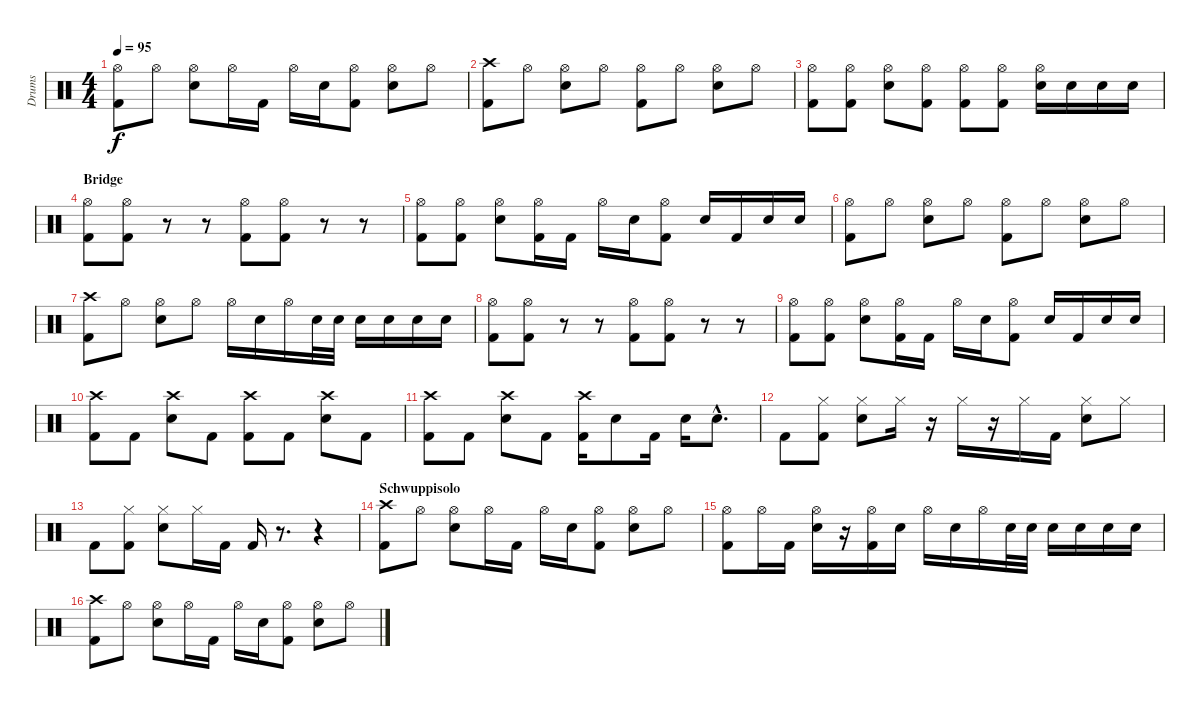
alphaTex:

\track ("Drums" "Drums") {instrument percussion}
\staff {score}
\articulation defaults
\ts (4 4)
\tempo 95
\clef neutral
\ks c
("Hi-Hat (open)" "Kick (hit) 2").8{dy f} "Hi-Hat (open)".8 ("Hi-Hat (open)" "Snare (hit) 2").8 "Hi-Hat (open)".16 "Kick (hit) 2".16 "Hi-Hat (open)".16 "Snare (hit) 2".16 ("Hi-Hat (open)" "Kick (hit) 2").8 ("Hi-Hat (open)" "Snare (hit) 2").8 "Hi-Hat (open)".8 |
("Crash high (hit)" "Kick (hit) 2").8 "Hi-Hat (open)".8 ("Hi-Hat (open)" "Snare (hit) 2").8 "Hi-Hat (open)".8 ("Hi-Hat (open)" "Kick (hit) 2").8 "Hi-Hat (open)".8 ("Hi-Hat (open)" "Snare (hit) 2").8 "Hi-Hat (open)".8 |
("Hi-Hat (open)" "Kick (hit) 2").8 ("Hi-Hat (open)" "Kick (hit) 2").8 ("Hi-Hat (open)" "Snare (hit) 2").8 ("Hi-Hat (open)" "Kick (hit) 2").8 ("Hi-Hat (open)" "Kick (hit) 2").8 ("Hi-Hat (open)" "Kick (hit) 2").8 ("Hi-Hat (open)" "Snare (hit) 2").16 "Snare (hit) 2".16 "Snare (hit) 2".16 "Snare (hit) 2".16 |
\section ("" "Bridge")
("Hi-Hat (open)" "Kick (hit) 2").8 ("Hi-Hat (open)" "Kick (hit) 2").8 r.8 r.8 ("Hi-Hat (open)" "Kick (hit) 2").8 ("Hi-Hat (open)" "Kick (hit) 2").8 r.8 r.8 |
("Hi-Hat (open)" "Kick (hit) 2").8 ("Hi-Hat (open)" "Kick (hit) 2").8 ("Hi-Hat (open)" "Snare (hit) 2").8 ("Hi-Hat (open)" "Kick (hit) 2").16 "Kick (hit) 2".16 "Hi-Hat (open)".16 "Snare (hit) 2".16 ("Hi-Hat (open)" "Kick (hit) 2").8 "Snare (hit) 2".16 "Kick (hit) 2".16 "Snare (hit) 2".16 "Snare (hit) 2".16 |
("Hi-Hat (open)" "Kick (hit) 2").8 "Hi-Hat (open)".8 ("Hi-Hat (open)" "Snare (hit) 2").8 "Hi-Hat (open)".8 ("Hi-Hat (open)" "Kick (hit) 2").8 "Hi-Hat (open)".8 ("Hi-Hat (open)" "Snare (hit) 2").8 "Hi-Hat (open)".8 |
("Crash high (hit)" "Kick (hit) 2").8 "Hi-Hat (open)".8 ("Hi-Hat (open)" "Snare (hit) 2").8 "Hi-Hat (open)".8 "Hi-Hat (open)".16 "Snare (hit) 2".16 "Hi-Hat (open)".16 "Snare (hit) 2".32 "Snare (hit) 2".32 "Snare (hit) 2".16 "Snare (hit) 2".16 "Snare (hit) 2".16 "Snare (hit) 2".16 |
("Hi-Hat (open)" "Kick (hit) 2").8 ("Hi-Hat (open)" "Kick (hit) 2").8 r.8 r.8 ("Hi-Hat (open)" "Kick (hit) 2").8 ("Hi-Hat (open)" "Kick (hit) 2").8 r.8 r.8 |
("Hi-Hat (open)" "Kick (hit) 2").8 ("Hi-Hat (open)" "Kick (hit) 2").8 ("Hi-Hat (open)" "Snare (hit) 2").8 ("Hi-Hat (open)" "Kick (hit) 2").16 "Kick (hit) 2".16 "Hi-Hat (open)".16 "Snare (hit) 2".16 ("Hi-Hat (open)" "Kick (hit) 2").8 "Snare (hit) 2".16 "Kick (hit) 2".16 "Snare (hit) 2".16 "Snare (hit) 2".16 |
("Crash high (hit)" "Kick (hit) 2").8 "Kick (hit) 2".8 ("Crash high (hit)" "Snare (hit) 2").8 "Kick (hit) 2".8 ("Crash high (hit)" "Kick (hit) 2").8 "Kick (hit) 2".8 ("Crash high (hit)" "Snare (hit) 2").8 "Kick (hit) 2".8 |
("Crash high (hit)" "Kick (hit) 2").8 "Kick (hit) 2".8 ("Crash high (hit)" "Snare (hit) 2").8 "Kick (hit) 2".8 ("Crash high (hit)" "Kick (hit) 2").16 "Snare (hit) 2".8 "Kick (hit) 2".16 "Snare (hit) 2".16 "Snare (hit) 2"{hac}.8{d} |
"Kick (hit) 2".8 ("Hi-Hat (closed)" "Kick (hit) 2").8 ("Hi-Hat (closed)" "Snare (hit) 2").8 "Hi-Hat (closed)".16 r.16 "Hi-Hat (closed)".16 r.16 "Hi-Hat (closed)".16 "Kick (hit) 2".16 ("Hi-Hat (closed)" "Snare (hit) 2").8 "Hi-Hat (closed)".8 |
"Kick (hit) 2".8 ("Hi-Hat (closed)" "Kick (hit) 2").8 ("Hi-Hat (closed)" "Snare (hit) 2").8 "Hi-Hat (closed)".16 "Kick (hit) 2".16 "Kick (hit) 2".16 r.8{d} r.4 |
\section ("" "Schwuppisolo")
("Crash high (hit)" "Kick (hit) 2").8 "Hi-Hat (open)".8 ("Hi-Hat (open)" "Snare (hit) 2").8 "Hi-Hat (open)".16 "Kick (hit) 2".16 "Hi-Hat (open)".16 "Snare (hit) 2".16 ("Hi-Hat (open)" "Kick (hit) 2").8 ("Hi-Hat (open)" "Snare (hit) 2").8 "Hi-Hat (open)".8 |
("Hi-Hat (open)" "Kick (hit) 2").8 "Hi-Hat (open)".16 "Kick (hit) 2".16 ("Hi-Hat (open)" "Snare (hit) 2").16 r.16 ("Hi-Hat (open)" "Kick (hit) 2").16 "Snare (hit) 2".16 "Hi-Hat (open)".16 "Snare (hit) 2".16 "Hi-Hat (open)".16 "Snare (hit) 2".32 "Snare (hit) 2".32 "Snare (hit) 2".16 "Snare (hit) 2".16 "Snare (hit) 2".16 "Snare (hit) 2".16 |
("Crash high (hit)" "Kick (hit) 2").8 "Hi-Hat (open)".8 ("Hi-Hat (open)" "Snare (hit) 2").8 "Hi-Hat (open)".16 "Kick (hit) 2".16 "Hi-Hat (open)".16 "Snare (hit) 2".16 ("Hi-Hat (open)" "Kick (hit) 2").8 ("Hi-Hat (open)" "Snare (hit) 2").8 "Hi-Hat (open)".8
